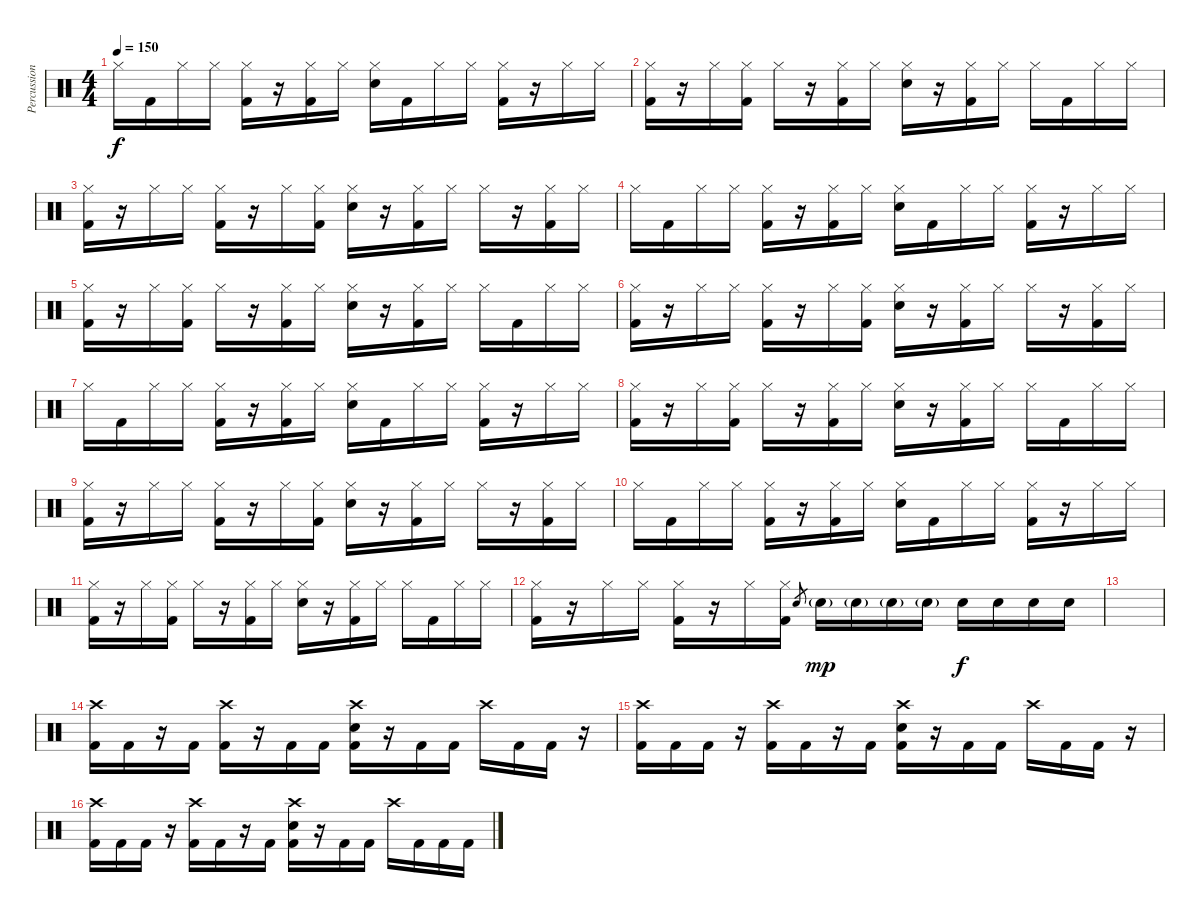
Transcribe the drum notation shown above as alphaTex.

\track ("Percussion" "Percussion") {instrument percussion}
\staff {score}
\articulation defaults
\ts (4 4)
\tempo 150
\clef neutral
\ks c "Hi-Hat (closed)".16{dy f} "Kick (hit) 2".16 "Hi-Hat (closed)".16 "Hi-Hat (closed)".16
("Hi-Hat (closed)" "Kick (hit) 2").16 r.16 ("Hi-Hat (closed)" "Kick (hit) 2").16 "Hi-Hat (closed)".16 ("Electric Snare (hit)" "Hi-Hat (closed)").16 "Kick (hit) 2".16 "Hi-Hat (closed)".16 "Hi-Hat (closed)".16 ("Hi-Hat (closed)" "Kick (hit) 2").16 r.16 "Hi-Hat (closed)".16 "Hi-Hat (closed)".16 |
("Hi-Hat (closed)" "Kick (hit) 2").16 r.16 "Hi-Hat (closed)".16 ("Hi-Hat (closed)" "Kick (hit) 2").16 "Hi-Hat (closed)".16 r.16 ("Hi-Hat (closed)" "Kick (hit) 2").16 "Hi-Hat (closed)".16 ("Electric Snare (hit)" "Hi-Hat (closed)").16 r.16 ("Hi-Hat (closed)" "Kick (hit) 2").16 "Hi-Hat (closed)".16 "Hi-Hat (closed)".16 "Kick (hit) 2".16 "Hi-Hat (closed)".16 "Hi-Hat (closed)".16 |
("Hi-Hat (closed)" "Kick (hit) 2").16 r.16 "Hi-Hat (closed)".16 "Hi-Hat (closed)".16 ("Hi-Hat (closed)" "Kick (hit) 2").16 r.16 "Hi-Hat (closed)".16 ("Hi-Hat (closed)" "Kick (hit) 2").16 ("Electric Snare (hit)" "Hi-Hat (closed)").16 r.16 ("Hi-Hat (closed)" "Kick (hit) 2").16 "Hi-Hat (closed)".16 "Hi-Hat (closed)".16 r.16 ("Hi-Hat (closed)" "Kick (hit) 2").16 "Hi-Hat (closed)".16 |
"Hi-Hat (closed)".16 "Kick (hit) 2".16 "Hi-Hat (closed)".16 "Hi-Hat (closed)".16 ("Hi-Hat (closed)" "Kick (hit) 2").16 r.16 ("Hi-Hat (closed)" "Kick (hit) 2").16 "Hi-Hat (closed)".16 ("Electric Snare (hit)" "Hi-Hat (closed)").16 "Kick (hit) 2".16 "Hi-Hat (closed)".16 "Hi-Hat (closed)".16 ("Hi-Hat (closed)" "Kick (hit) 2").16 r.16 "Hi-Hat (closed)".16 "Hi-Hat (closed)".16 |
("Hi-Hat (closed)" "Kick (hit) 2").16 r.16 "Hi-Hat (closed)".16 ("Hi-Hat (closed)" "Kick (hit) 2").16 "Hi-Hat (closed)".16 r.16 ("Hi-Hat (closed)" "Kick (hit) 2").16 "Hi-Hat (closed)".16 ("Electric Snare (hit)" "Hi-Hat (closed)").16 r.16 ("Hi-Hat (closed)" "Kick (hit) 2").16 "Hi-Hat (closed)".16 "Hi-Hat (closed)".16 "Kick (hit) 2".16 "Hi-Hat (closed)".16 "Hi-Hat (closed)".16 |
("Hi-Hat (closed)" "Kick (hit) 2").16 r.16 "Hi-Hat (closed)".16 "Hi-Hat (closed)".16 ("Hi-Hat (closed)" "Kick (hit) 2").16 r.16 "Hi-Hat (closed)".16 ("Hi-Hat (closed)" "Kick (hit) 2").16 ("Electric Snare (hit)" "Hi-Hat (closed)").16 r.16 ("Hi-Hat (closed)" "Kick (hit) 2").16 "Hi-Hat (closed)".16 "Hi-Hat (closed)".16 r.16 ("Hi-Hat (closed)" "Kick (hit) 2").16 "Hi-Hat (closed)".16 |
"Hi-Hat (closed)".16 "Kick (hit) 2".16 "Hi-Hat (closed)".16 "Hi-Hat (closed)".16 ("Hi-Hat (closed)" "Kick (hit) 2").16 r.16 ("Hi-Hat (closed)" "Kick (hit) 2").16 "Hi-Hat (closed)".16 ("Electric Snare (hit)" "Hi-Hat (closed)").16 "Kick (hit) 2".16 "Hi-Hat (closed)".16 "Hi-Hat (closed)".16 ("Hi-Hat (closed)" "Kick (hit) 2").16 r.16 "Hi-Hat (closed)".16 "Hi-Hat (closed)".16 |
("Hi-Hat (closed)" "Kick (hit) 2").16 r.16 "Hi-Hat (closed)".16 ("Hi-Hat (closed)" "Kick (hit) 2").16 "Hi-Hat (closed)".16 r.16 ("Hi-Hat (closed)" "Kick (hit) 2").16 "Hi-Hat (closed)".16 ("Electric Snare (hit)" "Hi-Hat (closed)").16 r.16 ("Hi-Hat (closed)" "Kick (hit) 2").16 "Hi-Hat (closed)".16 "Hi-Hat (closed)".16 "Kick (hit) 2".16 "Hi-Hat (closed)".16 "Hi-Hat (closed)".16 |
("Hi-Hat (closed)" "Kick (hit) 2").16 r.16 "Hi-Hat (closed)".16 "Hi-Hat (closed)".16 ("Hi-Hat (closed)" "Kick (hit) 2").16 r.16 "Hi-Hat (closed)".16 ("Hi-Hat (closed)" "Kick (hit) 2").16 ("Electric Snare (hit)" "Hi-Hat (closed)").16 r.16 ("Hi-Hat (closed)" "Kick (hit) 2").16 "Hi-Hat (closed)".16 "Hi-Hat (closed)".16 r.16 ("Hi-Hat (closed)" "Kick (hit) 2").16 "Hi-Hat (closed)".16 |
"Hi-Hat (closed)".16 "Kick (hit) 2".16 "Hi-Hat (closed)".16 "Hi-Hat (closed)".16 ("Hi-Hat (closed)" "Kick (hit) 2").16 r.16 ("Hi-Hat (closed)" "Kick (hit) 2").16 "Hi-Hat (closed)".16 ("Electric Snare (hit)" "Hi-Hat (closed)").16 "Kick (hit) 2".16 "Hi-Hat (closed)".16 "Hi-Hat (closed)".16 ("Hi-Hat (closed)" "Kick (hit) 2").16 r.16 "Hi-Hat (closed)".16 "Hi-Hat (closed)".16 |
("Hi-Hat (closed)" "Kick (hit) 2").16 r.16 "Hi-Hat (closed)".16 ("Hi-Hat (closed)" "Kick (hit) 2").16 "Hi-Hat (closed)".16 r.16 ("Hi-Hat (closed)" "Kick (hit) 2").16 "Hi-Hat (closed)".16 ("Electric Snare (hit)" "Hi-Hat (closed)").16 r.16 ("Hi-Hat (closed)" "Kick (hit) 2").16 "Hi-Hat (closed)".16 "Hi-Hat (closed)".16 "Kick (hit) 2".16 "Hi-Hat (closed)".16 "Hi-Hat (closed)".16 |
("Hi-Hat (closed)" "Kick (hit) 2").16 r.16 "Hi-Hat (closed)".16 "Hi-Hat (closed)".16 ("Hi-Hat (closed)" "Kick (hit) 2").16 r.16 "Hi-Hat (closed)".16 ("Hi-Hat (closed)" "Kick (hit) 2").16 "Electric Snare (hit)".8{gr} "Electric Snare (hit)"{g}.16{dy mp} "Electric Snare (hit)"{g}.16 "Electric Snare (hit)"{g}.16 "Electric Snare (hit)"{g}.16 "Electric Snare (hit)".16{dy f} "Electric Snare (hit)".16 "Electric Snare (hit)".16 "Electric Snare (hit)".16 |
|
("Crash high (hit)" "Kick (hit) 2").16 "Kick (hit) 2".16 r.16 "Kick (hit) 2".16 ("Crash high (hit)" "Kick (hit) 2").16 r.16 "Kick (hit) 2".16 "Kick (hit) 2".16 ("Crash high (hit)" "Electric Snare (hit)" "Kick (hit) 2").16 r.16 "Kick (hit) 2".16 "Kick (hit) 2".16 "Crash high (hit)".16 "Kick (hit) 2".16 "Kick (hit) 2".16 r.16 |
("Crash high (hit)" "Kick (hit) 2").16 "Kick (hit) 2".16 "Kick (hit) 2".16 r.16 ("Crash high (hit)" "Kick (hit) 2").16 "Kick (hit) 2".16 r.16 "Kick (hit) 2".16 ("Crash high (hit)" "Electric Snare (hit)" "Kick (hit) 2").16 r.16 "Kick (hit) 2".16 "Kick (hit) 2".16 "Crash high (hit)".16 "Kick (hit) 2".16 "Kick (hit) 2".16 r.16 |
("Crash high (hit)" "Kick (hit) 2").16 "Kick (hit) 2".16 "Kick (hit) 2".16 r.16 ("Crash high (hit)" "Kick (hit) 2").16 "Kick (hit) 2".16 r.16 "Kick (hit) 2".16 ("Crash high (hit)" "Electric Snare (hit)" "Kick (hit) 2").16 r.16 "Kick (hit) 2".16 "Kick (hit) 2".16 "Crash high (hit)".16 "Kick (hit) 2".16 "Kick (hit) 2".16 "Kick (hit) 2".16
